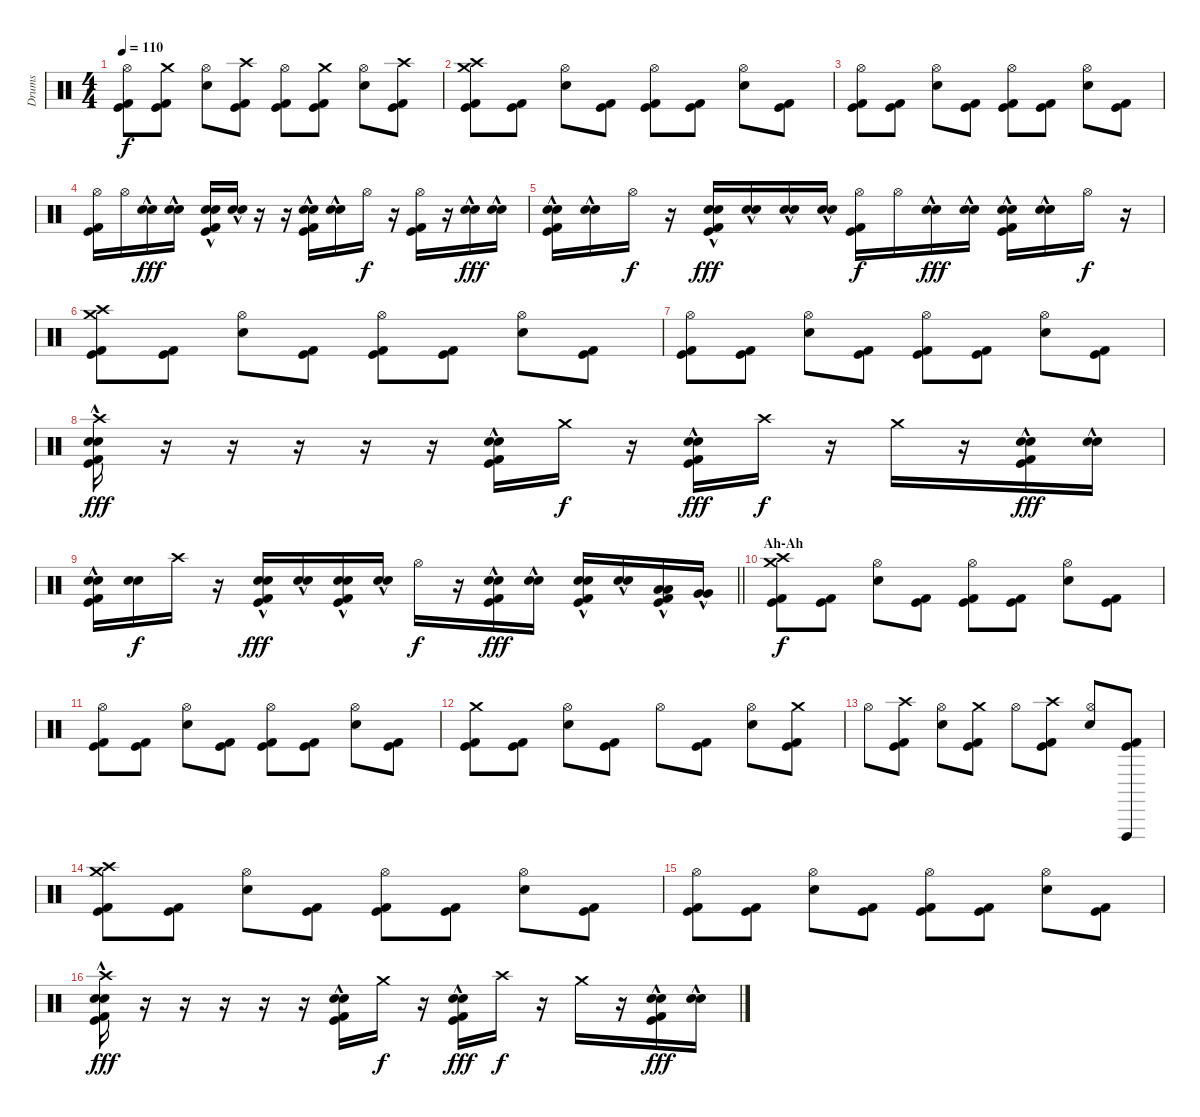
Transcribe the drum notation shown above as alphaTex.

\track ("Drums" "Drums") {instrument percussion}
\staff {score}
\articulation defaults
\ts (4 4)
\tempo 110
\clef neutral
\ks c
("Hi-Hat (open)" "Kick (hit)" "Kick (hit) 2").8{dy f} ("Crash medium (hit)" "Kick (hit)" "Kick (hit) 2").8 ("Hi-Hat (open)" "Electric Snare (hit)").8 ("Crash high (hit)" "Kick (hit)" "Kick (hit) 2").8 ("Hi-Hat (open)" "Kick (hit)" "Kick (hit) 2").8 ("Crash medium (hit)" "Kick (hit)" "Kick (hit) 2").8 ("Hi-Hat (open)" "Electric Snare (hit)").8 ("Crash high (hit)" "Kick (hit)" "Kick (hit) 2").8 |
("Crash high (hit)" "Crash medium (hit)" "Kick (hit)" "Kick (hit) 2").8 ("Kick (hit)" "Kick (hit) 2").8 ("Hi-Hat (open)" "Electric Snare (hit)").8 ("Kick (hit)" "Kick (hit) 2").8 ("Hi-Hat (open)" "Kick (hit)" "Kick (hit) 2").8 ("Kick (hit)" "Kick (hit) 2").8 ("Hi-Hat (open)" "Electric Snare (hit)").8 ("Kick (hit)" "Kick (hit) 2").8 |
("Hi-Hat (open)" "Kick (hit)" "Kick (hit) 2").8 ("Kick (hit)" "Kick (hit) 2").8 ("Hi-Hat (open)" "Electric Snare (hit)").8 ("Kick (hit)" "Kick (hit) 2").8 ("Hi-Hat (open)" "Kick (hit)" "Kick (hit) 2").8 ("Kick (hit)" "Kick (hit) 2").8 ("Hi-Hat (open)" "Electric Snare (hit)").8 ("Kick (hit)" "Kick (hit) 2").8 |
("Hi-Hat (open)" "Kick (hit)" "Kick (hit) 2").16 "Hi-Hat (open)".16 ("Electric Snare (hit)"{hac} "Electric Snare (hit)").16{dy fff} ("Electric Snare (hit)"{hac} "Electric Snare (hit)"{hac}).16 ("Electric Snare (hit)"{hac} "Electric Snare (hit)"{hac} "Kick (hit)" "Kick (hit) 2").16 ("Electric Snare (hit)"{hac} "Electric Snare (hit)"{hac}).16 r.16 r.16 ("Electric Snare (hit)"{hac} "Electric Snare (hit)"{hac} "Kick (hit)" "Kick (hit) 2").16 ("Electric Snare (hit)"{hac} "Electric Snare (hit)"{hac}).16 "Hi-Hat (open)".16{dy f} r.16 ("Hi-Hat (open)" "Kick (hit)" "Kick (hit) 2").16 r.16 ("Electric Snare (hit)"{hac} "Electric Snare (hit)"{hac}).16{dy fff} ("Electric Snare (hit)"{hac} "Electric Snare (hit)"{hac}).16 |
("Electric Snare (hit)"{hac} "Electric Snare (hit)"{hac} "Kick (hit)" "Kick (hit) 2").16 ("Electric Snare (hit)"{hac} "Electric Snare (hit)"{hac}).16 "Hi-Hat (open)".16{dy f} r.16 ("Electric Snare (hit)"{hac} "Electric Snare (hit)"{hac} "Kick (hit)" "Kick (hit) 2").16{dy fff} ("Electric Snare (hit)"{hac} "Electric Snare (hit)"{hac}).16 ("Electric Snare (hit)"{hac} "Electric Snare (hit)"{hac}).16 ("Electric Snare (hit)"{hac} "Electric Snare (hit)"{hac}).16 ("Hi-Hat (open)" "Kick (hit)" "Kick (hit) 2").16{dy f} "Hi-Hat (open)".16 ("Electric Snare (hit)"{hac} "Electric Snare (hit)"{hac}).16{dy fff} ("Electric Snare (hit)"{hac} "Electric Snare (hit)"{hac}).16 ("Electric Snare (hit)"{hac} "Electric Snare (hit)"{hac} "Kick (hit)" "Kick (hit) 2").16 ("Electric Snare (hit)"{hac} "Electric Snare (hit)"{hac}).16 "Hi-Hat (open)".16{dy f} r.16 |
("Crash high (hit)" "Crash medium (hit)" "Kick (hit)" "Kick (hit) 2").8 ("Kick (hit)" "Kick (hit) 2").8 ("Hi-Hat (open)" "Electric Snare (hit)").8 ("Kick (hit)" "Kick (hit) 2").8 ("Hi-Hat (open)" "Kick (hit)" "Kick (hit) 2").8 ("Kick (hit)" "Kick (hit) 2").8 ("Hi-Hat (open)" "Electric Snare (hit)").8 ("Kick (hit)" "Kick (hit) 2").8 |
("Hi-Hat (open)" "Kick (hit)" "Kick (hit) 2").8 ("Kick (hit)" "Kick (hit) 2").8 ("Hi-Hat (open)" "Electric Snare (hit)").8 ("Kick (hit)" "Kick (hit) 2").8 ("Hi-Hat (open)" "Kick (hit)" "Kick (hit) 2").8 ("Kick (hit)" "Kick (hit) 2").8 ("Hi-Hat (open)" "Electric Snare (hit)").8 ("Kick (hit)" "Kick (hit) 2").8 |
("Crash high (hit)" "Electric Snare (hit)"{hac} "Electric Snare (hit)"{hac} "Kick (hit)" "Kick (hit) 2").16{dy fff} r.16 r.16 r.16 r.16 r.16 ("Electric Snare (hit)"{hac} "Electric Snare (hit)"{hac} "Kick (hit)" "Kick (hit) 2").16 "Crash medium (hit)".16{dy f} r.16 ("Electric Snare (hit)"{hac} "Electric Snare (hit)"{hac} "Kick (hit)" "Kick (hit) 2").16{dy fff} "Crash high (hit)".16{dy f} r.16 "Crash medium (hit)".16 r.16 ("Electric Snare (hit)" "Electric Snare (hit)"{hac} "Kick (hit)" "Kick (hit) 2").16{dy fff} ("Electric Snare (hit)"{hac} "Electric Snare (hit)"{hac}).16 |
\barLineRight lightlight
("Electric Snare (hit)"{hac} "Electric Snare (hit)"{hac} "Kick (hit)" "Kick (hit) 2").16 ("Electric Snare (hit)" "Electric Snare (hit)").16{dy f} "Crash high (hit)".16 r.16 ("Electric Snare (hit)"{hac} "Electric Snare (hit)"{hac} "Kick (hit)" "Kick (hit) 2").16{dy fff} ("Electric Snare (hit)"{hac} "Electric Snare (hit)"{hac}).16 ("Electric Snare (hit)"{hac} "Electric Snare (hit)"{hac} "Kick (hit)" "Kick (hit) 2").16 ("Electric Snare (hit)"{hac} "Electric Snare (hit)"{hac}).16 "Hi-Hat (open)".16{dy f} r.16 ("Electric Snare (hit)"{hac} "Electric Snare (hit)"{hac} "Kick (hit)" "Kick (hit) 2").16{dy fff} ("Electric Snare (hit)"{hac} "Electric Snare (hit)"{hac}).16 ("Electric Snare (hit)"{hac} "Electric Snare (hit)"{hac} "Kick (hit)" "Kick (hit) 2").16 ("Electric Snare (hit)"{hac} "Electric Snare (hit)"{hac}).16 ("Low Tom (hit)"{hac} "Low Tom (hit)"{hac} "Kick (hit)" "Kick (hit) 2").16 ("Very Low Tom (hit)"{hac} "Very Low Tom (hit)"{hac}).16 |
\section ("" "Ah-Ah")
("Crash high (hit)" "Crash medium (hit)" "Kick (hit)" "Kick (hit) 2").8{dy f} ("Kick (hit)" "Kick (hit) 2").8 ("Hi-Hat (open)" "Electric Snare (hit)").8 ("Kick (hit)" "Kick (hit) 2").8 ("Hi-Hat (open)" "Kick (hit)" "Kick (hit) 2").8 ("Kick (hit)" "Kick (hit) 2").8 ("Hi-Hat (open)" "Electric Snare (hit)").8 ("Kick (hit)" "Kick (hit) 2").8 |
("Hi-Hat (open)" "Kick (hit)" "Kick (hit) 2").8 ("Kick (hit)" "Kick (hit) 2").8 ("Hi-Hat (open)" "Electric Snare (hit)").8 ("Kick (hit)" "Kick (hit) 2").8 ("Hi-Hat (open)" "Kick (hit)" "Kick (hit) 2").8 ("Kick (hit)" "Kick (hit) 2").8 ("Hi-Hat (open)" "Electric Snare (hit)").8 ("Kick (hit)" "Kick (hit) 2").8 |
("Crash medium (hit)" "Kick (hit)" "Kick (hit) 2").8 ("Kick (hit)" "Kick (hit) 2").8 ("Hi-Hat (open)" "Electric Snare (hit)").8 ("Kick (hit)" "Kick (hit) 2").8 "Hi-Hat (open)".8 ("Kick (hit)" "Kick (hit) 2").8 ("Hi-Hat (open)" "Electric Snare (hit)").8 ("Crash medium (hit)" "Kick (hit)" "Kick (hit) 2").8 |
"Hi-Hat (open)".8 ("Crash high (hit)" "Kick (hit)" "Kick (hit) 2").8 ("Hi-Hat (open)" "Electric Snare (hit)").8 ("Crash medium (hit)" "Kick (hit)" "Kick (hit) 2").8 "Hi-Hat (open)".8 ("Crash high (hit)" "Kick (hit)" "Kick (hit) 2").8 ("Hi-Hat (open)" "Electric Snare (hit)").8 ("Vibraslap (hit)" "Kick (hit)" "Kick (hit) 2").8 |
("Crash high (hit)" "Crash medium (hit)" "Kick (hit)" "Kick (hit) 2").8 ("Kick (hit)" "Kick (hit) 2").8 ("Hi-Hat (open)" "Electric Snare (hit)").8 ("Kick (hit)" "Kick (hit) 2").8 ("Hi-Hat (open)" "Kick (hit)" "Kick (hit) 2").8 ("Kick (hit)" "Kick (hit) 2").8 ("Hi-Hat (open)" "Electric Snare (hit)").8 ("Kick (hit)" "Kick (hit) 2").8 |
("Hi-Hat (open)" "Kick (hit)" "Kick (hit) 2").8 ("Kick (hit)" "Kick (hit) 2").8 ("Hi-Hat (open)" "Electric Snare (hit)").8 ("Kick (hit)" "Kick (hit) 2").8 ("Hi-Hat (open)" "Kick (hit)" "Kick (hit) 2").8 ("Kick (hit)" "Kick (hit) 2").8 ("Hi-Hat (open)" "Electric Snare (hit)").8 ("Kick (hit)" "Kick (hit) 2").8 |
("Crash high (hit)" "Electric Snare (hit)"{hac} "Electric Snare (hit)"{hac} "Kick (hit)" "Kick (hit) 2").16{dy fff} r.16 r.16 r.16 r.16 r.16 ("Electric Snare (hit)"{hac} "Electric Snare (hit)"{hac} "Kick (hit)" "Kick (hit) 2").16 "Crash medium (hit)".16{dy f} r.16 ("Electric Snare (hit)"{hac} "Electric Snare (hit)"{hac} "Kick (hit)" "Kick (hit) 2").16{dy fff} "Crash high (hit)".16{dy f} r.16 "Crash medium (hit)".16 r.16 ("Electric Snare (hit)" "Electric Snare (hit)"{hac} "Kick (hit)" "Kick (hit) 2").16{dy fff} ("Electric Snare (hit)"{hac} "Electric Snare (hit)"{hac}).16
